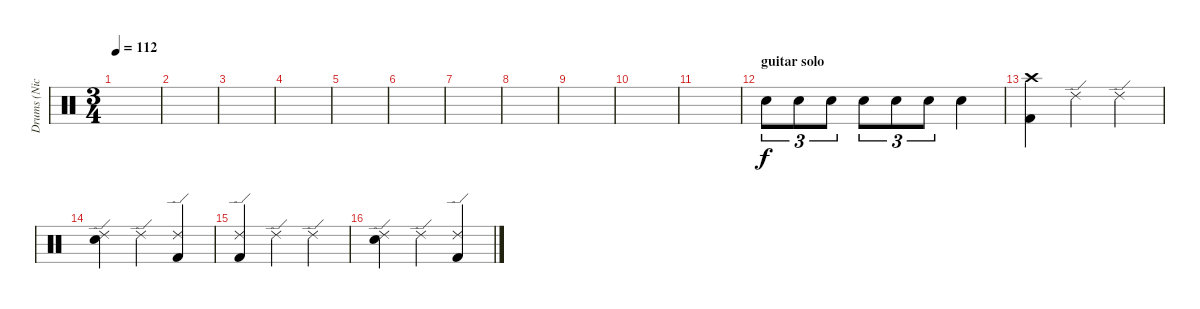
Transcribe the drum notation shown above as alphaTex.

\track ("Drums (Nick Mason)" "Drums (Nic") {instrument percussion}
\staff {score}
\articulation defaults
\ts (3 4)
\tempo 112
\clef neutral
\ks c
|
|
|
|
|
|
|
|
|
|
|
\section ("" "guitar solo")
"Electric Snare (hit)".8{tu (3 2)} "Electric Snare (hit)".8{tu (3 2)} "Electric Snare (hit)".8{tu (3 2)} "Electric Snare (hit)".8{tu (3 2)} "Electric Snare (hit)".8{tu (3 2)} "Electric Snare (hit)".8{tu (3 2)} "Electric Snare (hit)".4 |
("Crash high (hit)" "Kick (hit) 2").4 "Ride (edge) 2".4 "Ride (edge) 2".4 |
("Ride (edge) 2" "Electric Snare (hit)").4 "Ride (edge) 2".4 ("Ride (edge) 2" "Kick (hit) 2").4 |
("Ride (edge) 2" "Kick (hit) 2").4 "Ride (edge) 2".4 "Ride (edge) 2".4 |
("Ride (edge) 2" "Electric Snare (hit)").4 "Ride (edge) 2".4 ("Ride (edge) 2" "Kick (hit) 2").4
